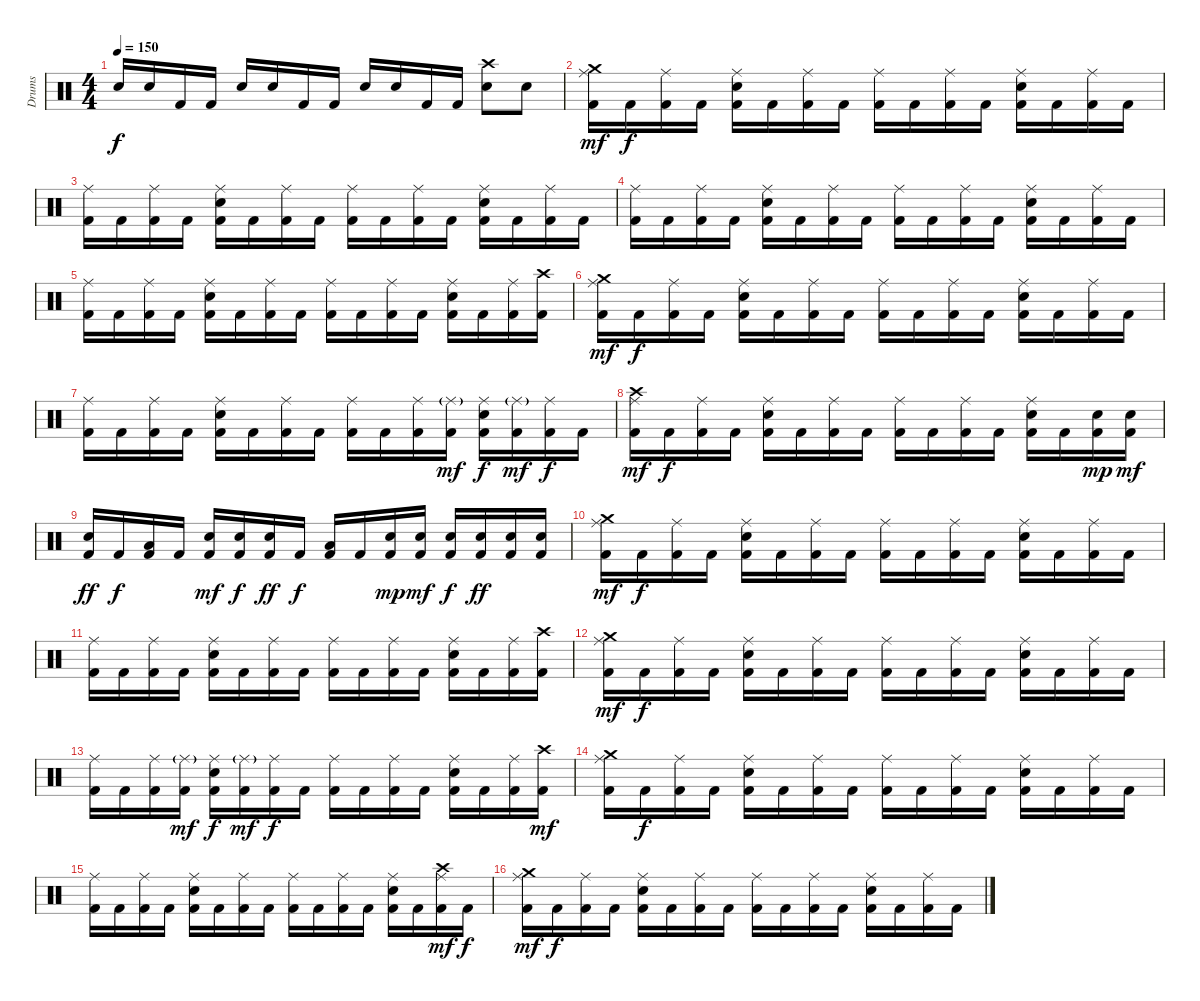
\track ("Drums" "Drums") {instrument percussion}
\staff {score}
\articulation defaults
\ts (4 4)
\tempo 150
\clef neutral
\ks c "Electric Snare (hit)".16{dy f} "Electric Snare (hit)".16 "Kick (hit) 2".16 "Kick (hit) 2".16 "Electric Snare (hit)".16 "Electric Snare (hit)".16 "Kick (hit) 2".16 "Kick (hit) 2".16 "Electric Snare (hit)".16 "Electric Snare (hit)".16 "Kick (hit) 2".16 "Kick (hit) 2".16
("Crash high (hit)" "Electric Snare (hit)").8 "Electric Snare (hit)".8 |
("Crash medium (hit)" "Ride (middle)" "Kick (hit) 2").16{dy mf} "Kick (hit) 2".16{dy f} ("Ride (middle)" "Kick (hit) 2").16 "Kick (hit) 2".16 ("Ride (middle)" "Electric Snare (hit)" "Kick (hit) 2").16 "Kick (hit) 2".16 ("Ride (middle)" "Kick (hit) 2").16 "Kick (hit) 2".16 ("Ride (middle)" "Kick (hit) 2").16 "Kick (hit) 2".16 ("Ride (middle)" "Kick (hit) 2").16 "Kick (hit) 2".16 ("Ride (middle)" "Electric Snare (hit)" "Kick (hit) 2").16 "Kick (hit) 2".16 ("Ride (middle)" "Kick (hit) 2").16 "Kick (hit) 2".16 |
("Ride (middle)" "Kick (hit) 2").16 "Kick (hit) 2".16 ("Ride (middle)" "Kick (hit) 2").16 "Kick (hit) 2".16 ("Ride (middle)" "Electric Snare (hit)" "Kick (hit) 2").16 "Kick (hit) 2".16 ("Ride (middle)" "Kick (hit) 2").16 "Kick (hit) 2".16 ("Ride (middle)" "Kick (hit) 2").16 "Kick (hit) 2".16 ("Ride (middle)" "Kick (hit) 2").16 "Kick (hit) 2".16 ("Ride (middle)" "Electric Snare (hit)" "Kick (hit) 2").16 "Kick (hit) 2".16 ("Ride (middle)" "Kick (hit) 2").16 "Kick (hit) 2".16 |
("Ride (middle)" "Kick (hit) 2").16 "Kick (hit) 2".16 ("Ride (middle)" "Kick (hit) 2").16 "Kick (hit) 2".16 ("Ride (middle)" "Electric Snare (hit)" "Kick (hit) 2").16 "Kick (hit) 2".16 ("Ride (middle)" "Kick (hit) 2").16 "Kick (hit) 2".16 ("Ride (middle)" "Kick (hit) 2").16 "Kick (hit) 2".16 ("Ride (middle)" "Kick (hit) 2").16 "Kick (hit) 2".16 ("Ride (middle)" "Electric Snare (hit)" "Kick (hit) 2").16 "Kick (hit) 2".16 ("Ride (middle)" "Kick (hit) 2").16 "Kick (hit) 2".16 |
("Ride (middle)" "Kick (hit) 2").16 "Kick (hit) 2".16 ("Ride (middle)" "Kick (hit) 2").16 "Kick (hit) 2".16 ("Ride (middle)" "Electric Snare (hit)" "Kick (hit) 2").16 "Kick (hit) 2".16 ("Ride (middle)" "Kick (hit) 2").16 "Kick (hit) 2".16 ("Ride (middle)" "Kick (hit) 2").16 "Kick (hit) 2".16 ("Ride (middle)" "Kick (hit) 2").16 "Kick (hit) 2".16 ("Ride (middle)" "Electric Snare (hit)" "Kick (hit) 2").16 "Kick (hit) 2".16 ("Ride (middle)" "Kick (hit) 2").16 ("Crash high (hit)" "Kick (hit) 2").16 |
("Crash medium (hit)" "Ride (middle)" "Kick (hit) 2").16{dy mf} "Kick (hit) 2".16{dy f} ("Ride (middle)" "Kick (hit) 2").16 "Kick (hit) 2".16 ("Ride (middle)" "Electric Snare (hit)" "Kick (hit) 2").16 "Kick (hit) 2".16 ("Ride (middle)" "Kick (hit) 2").16 "Kick (hit) 2".16 ("Ride (middle)" "Kick (hit) 2").16 "Kick (hit) 2".16 ("Ride (middle)" "Kick (hit) 2").16 "Kick (hit) 2".16 ("Ride (middle)" "Electric Snare (hit)" "Kick (hit) 2").16 "Kick (hit) 2".16 ("Ride (middle)" "Kick (hit) 2").16 "Kick (hit) 2".16 |
("Ride (middle)" "Kick (hit) 2").16 "Kick (hit) 2".16 ("Ride (middle)" "Kick (hit) 2").16 "Kick (hit) 2".16 ("Ride (middle)" "Electric Snare (hit)" "Kick (hit) 2").16 "Kick (hit) 2".16 ("Ride (middle)" "Kick (hit) 2").16 "Kick (hit) 2".16 ("Ride (middle)" "Kick (hit) 2").16 "Kick (hit) 2".16 ("Ride (middle)" "Kick (hit) 2").16 ("Ride (middle)"{g} "Kick (hit) 2").16{dy mf} ("Ride (middle)" "Electric Snare (hit)" "Kick (hit) 2").16{dy f} ("Ride (middle)"{g} "Kick (hit) 2").16{dy mf} ("Ride (middle)" "Kick (hit) 2").16{dy f} "Kick (hit) 2".16 |
("Crash high (hit)" "Ride (middle)" "Kick (hit) 2").16{dy mf} "Kick (hit) 2".16{dy f} ("Ride (middle)" "Kick (hit) 2").16 "Kick (hit) 2".16 ("Ride (middle)" "Electric Snare (hit)" "Kick (hit) 2").16 "Kick (hit) 2".16 ("Ride (middle)" "Kick (hit) 2").16 "Kick (hit) 2".16 ("Ride (middle)" "Kick (hit) 2").16 "Kick (hit) 2".16 ("Ride (middle)" "Kick (hit) 2").16 "Kick (hit) 2".16 ("Ride (middle)" "Electric Snare (hit)" "Kick (hit) 2").16 "Kick (hit) 2".16 ("Electric Snare (hit)" "Kick (hit) 2").16{dy mp} ("Electric Snare (hit)" "Kick (hit) 2").16{dy mf} |
("Electric Snare (hit)" "Kick (hit) 2").16{dy ff} "Kick (hit) 2".16{dy f} ("Low Floor Tom (hit)" "Kick (hit) 2").16 "Kick (hit) 2".16 ("Electric Snare (hit)" "Kick (hit) 2").16{dy mf} ("Electric Snare (hit)" "Kick (hit) 2").16{dy f} ("Electric Snare (hit)" "Kick (hit) 2").16{dy ff} "Kick (hit) 2".16{dy f} ("Low Floor Tom (hit)" "Kick (hit) 2").16 "Kick (hit) 2".16 ("Electric Snare (hit)" "Kick (hit) 2").16{dy mp} ("Electric Snare (hit)" "Kick (hit) 2").16{dy mf} ("Electric Snare (hit)" "Kick (hit) 2").16{dy f} ("Electric Snare (hit)" "Kick (hit) 2").16{dy ff} ("Electric Snare (hit)" "Kick (hit) 2").16 ("Electric Snare (hit)" "Kick (hit) 2").16 |
("Crash medium (hit)" "Ride (middle)" "Kick (hit) 2").16{dy mf} "Kick (hit) 2".16{dy f} ("Ride (middle)" "Kick (hit) 2").16 "Kick (hit) 2".16 ("Ride (middle)" "Electric Snare (hit)" "Kick (hit) 2").16 "Kick (hit) 2".16 ("Ride (middle)" "Kick (hit) 2").16 "Kick (hit) 2".16 ("Ride (middle)" "Kick (hit) 2").16 "Kick (hit) 2".16 ("Ride (middle)" "Kick (hit) 2").16 "Kick (hit) 2".16 ("Ride (middle)" "Electric Snare (hit)" "Kick (hit) 2").16 "Kick (hit) 2".16 ("Ride (middle)" "Kick (hit) 2").16 "Kick (hit) 2".16 |
("Ride (middle)" "Kick (hit) 2").16 "Kick (hit) 2".16 ("Ride (middle)" "Kick (hit) 2").16 "Kick (hit) 2".16 ("Ride (middle)" "Electric Snare (hit)" "Kick (hit) 2").16 "Kick (hit) 2".16 ("Ride (middle)" "Kick (hit) 2").16 "Kick (hit) 2".16 ("Ride (middle)" "Kick (hit) 2").16 "Kick (hit) 2".16 ("Ride (middle)" "Kick (hit) 2").16 "Kick (hit) 2".16 ("Ride (middle)" "Electric Snare (hit)" "Kick (hit) 2").16 "Kick (hit) 2".16 ("Ride (middle)" "Kick (hit) 2").16 ("Crash high (hit)" "Kick (hit) 2").16 |
("Crash medium (hit)" "Ride (middle)" "Kick (hit) 2").16{dy mf} "Kick (hit) 2".16{dy f} ("Ride (middle)" "Kick (hit) 2").16 "Kick (hit) 2".16 ("Ride (middle)" "Electric Snare (hit)" "Kick (hit) 2").16 "Kick (hit) 2".16 ("Ride (middle)" "Kick (hit) 2").16 "Kick (hit) 2".16 ("Ride (middle)" "Kick (hit) 2").16 "Kick (hit) 2".16 ("Ride (middle)" "Kick (hit) 2").16 "Kick (hit) 2".16 ("Ride (middle)" "Electric Snare (hit)" "Kick (hit) 2").16 "Kick (hit) 2".16 ("Ride (middle)" "Kick (hit) 2").16 "Kick (hit) 2".16 |
("Ride (middle)" "Kick (hit) 2").16 "Kick (hit) 2".16 ("Ride (middle)" "Kick (hit) 2").16 ("Ride (middle)"{g} "Kick (hit) 2").16{dy mf} ("Ride (middle)" "Electric Snare (hit)" "Kick (hit) 2").16{dy f} ("Ride (middle)"{g} "Kick (hit) 2").16{dy mf} ("Ride (middle)" "Kick (hit) 2").16{dy f} "Kick (hit) 2".16 ("Ride (middle)" "Kick (hit) 2").16 "Kick (hit) 2".16 ("Ride (middle)" "Kick (hit) 2").16 "Kick (hit) 2".16 ("Ride (middle)" "Electric Snare (hit)" "Kick (hit) 2").16 "Kick (hit) 2".16 ("Ride (middle)" "Kick (hit) 2").16 ("Crash high (hit)" "Kick (hit) 2").16{dy mf} |
("Crash medium (hit)" "Ride (middle)" "Kick (hit) 2").16 "Kick (hit) 2".16{dy f} ("Ride (middle)" "Kick (hit) 2").16 "Kick (hit) 2".16 ("Ride (middle)" "Electric Snare (hit)" "Kick (hit) 2").16 "Kick (hit) 2".16 ("Ride (middle)" "Kick (hit) 2").16 "Kick (hit) 2".16 ("Ride (middle)" "Kick (hit) 2").16 "Kick (hit) 2".16 ("Ride (middle)" "Kick (hit) 2").16 "Kick (hit) 2".16 ("Ride (middle)" "Electric Snare (hit)" "Kick (hit) 2").16 "Kick (hit) 2".16 ("Ride (middle)" "Kick (hit) 2").16 "Kick (hit) 2".16 |
("Ride (middle)" "Kick (hit) 2").16 "Kick (hit) 2".16 ("Ride (middle)" "Kick (hit) 2").16 "Kick (hit) 2".16 ("Ride (middle)" "Electric Snare (hit)" "Kick (hit) 2").16 "Kick (hit) 2".16 ("Ride (middle)" "Kick (hit) 2").16 "Kick (hit) 2".16 ("Ride (middle)" "Kick (hit) 2").16 "Kick (hit) 2".16 ("Ride (middle)" "Kick (hit) 2").16 "Kick (hit) 2".16 ("Ride (middle)" "Electric Snare (hit)" "Kick (hit) 2").16 "Kick (hit) 2".16 ("Crash high (hit)" "Ride (middle)" "Kick (hit) 2").16{dy mf} "Kick (hit) 2".16{dy f} |
("Crash medium (hit)" "Ride (middle)" "Kick (hit) 2").16{dy mf} "Kick (hit) 2".16{dy f} ("Ride (middle)" "Kick (hit) 2").16 "Kick (hit) 2".16 ("Ride (middle)" "Electric Snare (hit)" "Kick (hit) 2").16 "Kick (hit) 2".16 ("Ride (middle)" "Kick (hit) 2").16 "Kick (hit) 2".16 ("Ride (middle)" "Kick (hit) 2").16 "Kick (hit) 2".16 ("Ride (middle)" "Kick (hit) 2").16 "Kick (hit) 2".16 ("Ride (middle)" "Electric Snare (hit)" "Kick (hit) 2").16 "Kick (hit) 2".16 ("Ride (middle)" "Kick (hit) 2").16 "Kick (hit) 2".16
